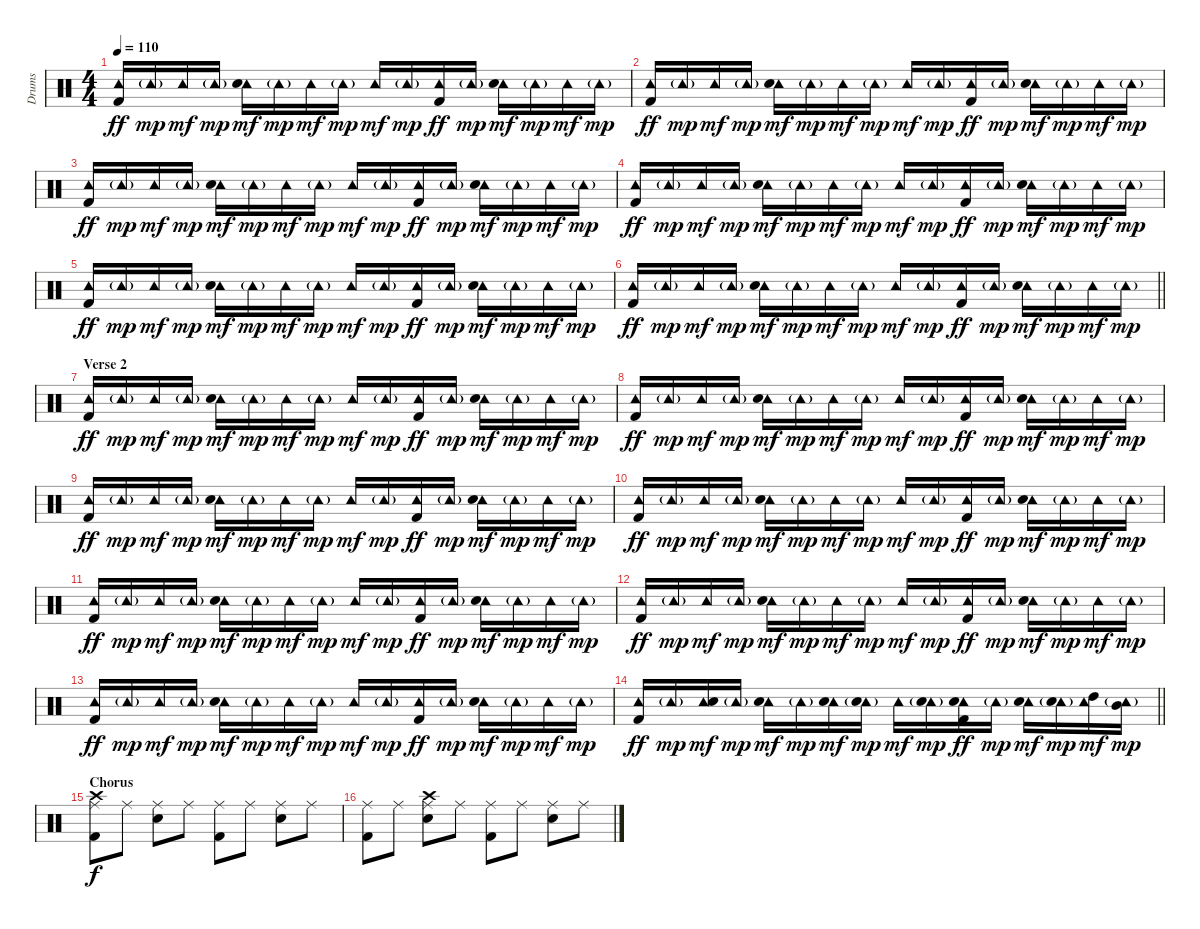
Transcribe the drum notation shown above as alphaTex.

\track ("Drums" "Drums") {instrument percussion}
\staff {score}
\articulation defaults
\ts (4 4)
\tempo 110
\clef neutral
\ks c
("Tambourine (hit)" "Kick (hit) 2").16{dy ff} "Tambourine (hit)"{g}.16{dy mp} "Tambourine (hit)".16{dy mf} "Tambourine (hit)"{g}.16{dy mp} ("Tambourine (hit)" "Snare (hit) 2").16{dy mf} "Tambourine (hit)"{g}.16{dy mp} "Tambourine (hit)".16{dy mf} "Tambourine (hit)"{g}.16{dy mp} "Tambourine (hit)".16{dy mf} "Tambourine (hit)"{g}.16{dy mp} ("Tambourine (hit)" "Kick (hit) 2").16{dy ff} "Tambourine (hit)"{g}.16{dy mp} ("Tambourine (hit)" "Snare (hit) 2").16{dy mf} "Tambourine (hit)"{g}.16{dy mp} "Tambourine (hit)".16{dy mf} "Tambourine (hit)"{g}.16{dy mp} |
("Tambourine (hit)" "Kick (hit) 2").16{dy ff} "Tambourine (hit)"{g}.16{dy mp} "Tambourine (hit)".16{dy mf} "Tambourine (hit)"{g}.16{dy mp} ("Tambourine (hit)" "Snare (hit) 2").16{dy mf} "Tambourine (hit)"{g}.16{dy mp} "Tambourine (hit)".16{dy mf} "Tambourine (hit)"{g}.16{dy mp} "Tambourine (hit)".16{dy mf} "Tambourine (hit)"{g}.16{dy mp} ("Tambourine (hit)" "Kick (hit) 2").16{dy ff} "Tambourine (hit)"{g}.16{dy mp} ("Tambourine (hit)" "Snare (hit) 2").16{dy mf} "Tambourine (hit)"{g}.16{dy mp} "Tambourine (hit)".16{dy mf} "Tambourine (hit)"{g}.16{dy mp} |
("Tambourine (hit)" "Kick (hit) 2").16{dy ff} "Tambourine (hit)"{g}.16{dy mp} "Tambourine (hit)".16{dy mf} "Tambourine (hit)"{g}.16{dy mp} ("Tambourine (hit)" "Snare (hit) 2").16{dy mf} "Tambourine (hit)"{g}.16{dy mp} "Tambourine (hit)".16{dy mf} "Tambourine (hit)"{g}.16{dy mp} "Tambourine (hit)".16{dy mf} "Tambourine (hit)"{g}.16{dy mp} ("Tambourine (hit)" "Kick (hit) 2").16{dy ff} "Tambourine (hit)"{g}.16{dy mp} ("Tambourine (hit)" "Snare (hit) 2").16{dy mf} "Tambourine (hit)"{g}.16{dy mp} "Tambourine (hit)".16{dy mf} "Tambourine (hit)"{g}.16{dy mp} |
("Tambourine (hit)" "Kick (hit) 2").16{dy ff} "Tambourine (hit)"{g}.16{dy mp} "Tambourine (hit)".16{dy mf} "Tambourine (hit)"{g}.16{dy mp} ("Tambourine (hit)" "Snare (hit) 2").16{dy mf} "Tambourine (hit)"{g}.16{dy mp} "Tambourine (hit)".16{dy mf} "Tambourine (hit)"{g}.16{dy mp} "Tambourine (hit)".16{dy mf} "Tambourine (hit)"{g}.16{dy mp} ("Tambourine (hit)" "Kick (hit) 2").16{dy ff} "Tambourine (hit)"{g}.16{dy mp} ("Tambourine (hit)" "Snare (hit) 2").16{dy mf} "Tambourine (hit)"{g}.16{dy mp} "Tambourine (hit)".16{dy mf} "Tambourine (hit)"{g}.16{dy mp} |
("Tambourine (hit)" "Kick (hit) 2").16{dy ff} "Tambourine (hit)"{g}.16{dy mp} "Tambourine (hit)".16{dy mf} "Tambourine (hit)"{g}.16{dy mp} ("Tambourine (hit)" "Snare (hit) 2").16{dy mf} "Tambourine (hit)"{g}.16{dy mp} "Tambourine (hit)".16{dy mf} "Tambourine (hit)"{g}.16{dy mp} "Tambourine (hit)".16{dy mf} "Tambourine (hit)"{g}.16{dy mp} ("Tambourine (hit)" "Kick (hit) 2").16{dy ff} "Tambourine (hit)"{g}.16{dy mp} ("Tambourine (hit)" "Snare (hit) 2").16{dy mf} "Tambourine (hit)"{g}.16{dy mp} "Tambourine (hit)".16{dy mf} "Tambourine (hit)"{g}.16{dy mp} |
\barLineRight lightlight
("Tambourine (hit)" "Kick (hit) 2").16{dy ff} "Tambourine (hit)"{g}.16{dy mp} "Tambourine (hit)".16{dy mf} "Tambourine (hit)"{g}.16{dy mp} ("Tambourine (hit)" "Snare (hit) 2").16{dy mf} "Tambourine (hit)"{g}.16{dy mp} "Tambourine (hit)".16{dy mf} "Tambourine (hit)"{g}.16{dy mp} "Tambourine (hit)".16{dy mf} "Tambourine (hit)"{g}.16{dy mp} ("Tambourine (hit)" "Kick (hit) 2").16{dy ff} "Tambourine (hit)"{g}.16{dy mp} ("Tambourine (hit)" "Snare (hit) 2").16{dy mf} "Tambourine (hit)"{g}.16{dy mp} "Tambourine (hit)".16{dy mf} "Tambourine (hit)"{g}.16{dy mp} |
\section ("" "Verse 2")
("Tambourine (hit)" "Kick (hit) 2").16{dy ff} "Tambourine (hit)"{g}.16{dy mp} "Tambourine (hit)".16{dy mf} "Tambourine (hit)"{g}.16{dy mp} ("Tambourine (hit)" "Snare (hit) 2").16{dy mf} "Tambourine (hit)"{g}.16{dy mp} "Tambourine (hit)".16{dy mf} "Tambourine (hit)"{g}.16{dy mp} "Tambourine (hit)".16{dy mf} "Tambourine (hit)"{g}.16{dy mp} ("Tambourine (hit)" "Kick (hit) 2").16{dy ff} "Tambourine (hit)"{g}.16{dy mp} ("Tambourine (hit)" "Snare (hit) 2").16{dy mf} "Tambourine (hit)"{g}.16{dy mp} "Tambourine (hit)".16{dy mf} "Tambourine (hit)"{g}.16{dy mp} |
("Tambourine (hit)" "Kick (hit) 2").16{dy ff} "Tambourine (hit)"{g}.16{dy mp} "Tambourine (hit)".16{dy mf} "Tambourine (hit)"{g}.16{dy mp} ("Tambourine (hit)" "Snare (hit) 2").16{dy mf} "Tambourine (hit)"{g}.16{dy mp} "Tambourine (hit)".16{dy mf} "Tambourine (hit)"{g}.16{dy mp} "Tambourine (hit)".16{dy mf} "Tambourine (hit)"{g}.16{dy mp} ("Tambourine (hit)" "Kick (hit) 2").16{dy ff} "Tambourine (hit)"{g}.16{dy mp} ("Tambourine (hit)" "Snare (hit) 2").16{dy mf} "Tambourine (hit)"{g}.16{dy mp} "Tambourine (hit)".16{dy mf} "Tambourine (hit)"{g}.16{dy mp} |
("Tambourine (hit)" "Kick (hit) 2").16{dy ff} "Tambourine (hit)"{g}.16{dy mp} "Tambourine (hit)".16{dy mf} "Tambourine (hit)"{g}.16{dy mp} ("Tambourine (hit)" "Snare (hit) 2").16{dy mf} "Tambourine (hit)"{g}.16{dy mp} "Tambourine (hit)".16{dy mf} "Tambourine (hit)"{g}.16{dy mp} "Tambourine (hit)".16{dy mf} "Tambourine (hit)"{g}.16{dy mp} ("Tambourine (hit)" "Kick (hit) 2").16{dy ff} "Tambourine (hit)"{g}.16{dy mp} ("Tambourine (hit)" "Snare (hit) 2").16{dy mf} "Tambourine (hit)"{g}.16{dy mp} "Tambourine (hit)".16{dy mf} "Tambourine (hit)"{g}.16{dy mp} |
("Tambourine (hit)" "Kick (hit) 2").16{dy ff} "Tambourine (hit)"{g}.16{dy mp} "Tambourine (hit)".16{dy mf} "Tambourine (hit)"{g}.16{dy mp} ("Tambourine (hit)" "Snare (hit) 2").16{dy mf} "Tambourine (hit)"{g}.16{dy mp} "Tambourine (hit)".16{dy mf} "Tambourine (hit)"{g}.16{dy mp} "Tambourine (hit)".16{dy mf} "Tambourine (hit)"{g}.16{dy mp} ("Tambourine (hit)" "Kick (hit) 2").16{dy ff} "Tambourine (hit)"{g}.16{dy mp} ("Tambourine (hit)" "Snare (hit) 2").16{dy mf} "Tambourine (hit)"{g}.16{dy mp} "Tambourine (hit)".16{dy mf} "Tambourine (hit)"{g}.16{dy mp} |
("Tambourine (hit)" "Kick (hit) 2").16{dy ff} "Tambourine (hit)"{g}.16{dy mp} "Tambourine (hit)".16{dy mf} "Tambourine (hit)"{g}.16{dy mp} ("Tambourine (hit)" "Snare (hit) 2").16{dy mf} "Tambourine (hit)"{g}.16{dy mp} "Tambourine (hit)".16{dy mf} "Tambourine (hit)"{g}.16{dy mp} "Tambourine (hit)".16{dy mf} "Tambourine (hit)"{g}.16{dy mp} ("Tambourine (hit)" "Kick (hit) 2").16{dy ff} "Tambourine (hit)"{g}.16{dy mp} ("Tambourine (hit)" "Snare (hit) 2").16{dy mf} "Tambourine (hit)"{g}.16{dy mp} "Tambourine (hit)".16{dy mf} "Tambourine (hit)"{g}.16{dy mp} |
("Tambourine (hit)" "Kick (hit) 2").16{dy ff} "Tambourine (hit)"{g}.16{dy mp} "Tambourine (hit)".16{dy mf} "Tambourine (hit)"{g}.16{dy mp} ("Tambourine (hit)" "Snare (hit) 2").16{dy mf} "Tambourine (hit)"{g}.16{dy mp} "Tambourine (hit)".16{dy mf} "Tambourine (hit)"{g}.16{dy mp} "Tambourine (hit)".16{dy mf} "Tambourine (hit)"{g}.16{dy mp} ("Tambourine (hit)" "Kick (hit) 2").16{dy ff} "Tambourine (hit)"{g}.16{dy mp} ("Tambourine (hit)" "Snare (hit) 2").16{dy mf} "Tambourine (hit)"{g}.16{dy mp} "Tambourine (hit)".16{dy mf} "Tambourine (hit)"{g}.16{dy mp} |
("Tambourine (hit)" "Kick (hit) 2").16{dy ff} "Tambourine (hit)"{g}.16{dy mp} "Tambourine (hit)".16{dy mf} "Tambourine (hit)"{g}.16{dy mp} ("Tambourine (hit)" "Snare (hit) 2").16{dy mf} "Tambourine (hit)"{g}.16{dy mp} "Tambourine (hit)".16{dy mf} "Tambourine (hit)"{g}.16{dy mp} "Tambourine (hit)".16{dy mf} "Tambourine (hit)"{g}.16{dy mp} ("Tambourine (hit)" "Kick (hit) 2").16{dy ff} "Tambourine (hit)"{g}.16{dy mp} ("Tambourine (hit)" "Snare (hit) 2").16{dy mf} "Tambourine (hit)"{g}.16{dy mp} "Tambourine (hit)".16{dy mf} "Tambourine (hit)"{g}.16{dy mp} |
\barLineRight lightlight
("Tambourine (hit)" "Kick (hit) 2").16{dy ff} "Tambourine (hit)"{g}.16{dy mp} ("Tambourine (hit)" "Snare (hit) 2").16{dy mf} "Tambourine (hit)"{g}.16{dy mp} ("Tambourine (hit)" "Snare (hit) 2").16{dy mf} "Tambourine (hit)"{g}.16{dy mp} ("Tambourine (hit)" "Snare (hit) 2").16{dy mf} ("Tambourine (hit)"{g} "Snare (hit) 2").16{dy mp} "Tambourine (hit)".16{dy mf} ("Tambourine (hit)"{g} "Snare (hit) 2").16{dy mp} ("Tambourine (hit)" "Snare (hit) 2" "Kick (hit) 2").16{dy ff} "Tambourine (hit)"{g}.16{dy mp} ("Tambourine (hit)" "Snare (hit) 2").16{dy mf} ("Tambourine (hit)"{g} "Snare (hit) 2").16{dy mp} ("Tambourine (hit)" "High Tom (hit)").16{dy mf} ("Tambourine (hit)"{g} "Mid Tom (hit)").16{dy mp} |
\section ("" "Chorus")
("Crash high (hit)" "Ride (middle)" "Kick (hit) 2").8{dy f} "Ride (middle)".8 ("Ride (middle)" "Snare (hit) 2").8 "Ride (middle)".8 ("Ride (middle)" "Kick (hit) 2").8 "Ride (middle)".8 ("Ride (middle)" "Snare (hit) 2").8 "Ride (middle)".8 |
("Ride (middle)" "Kick (hit) 2").8 "Ride (middle)".8 ("Crash high (hit)" "Ride (middle)" "Snare (hit) 2").8 "Ride (middle)".8 ("Ride (middle)" "Kick (hit) 2").8 "Ride (middle)".8 ("Ride (middle)" "Snare (hit) 2").8 "Ride (middle)".8
